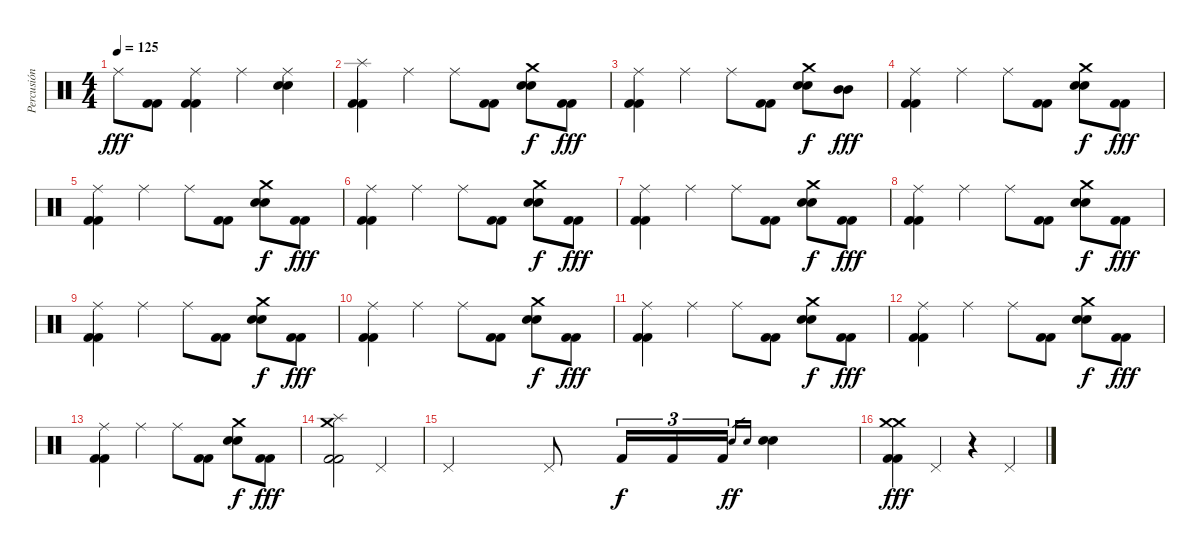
\track ("Percusión" "Percusión") {instrument percussion}
\staff {score}
\articulation defaults
\ts (4 4)
\tempo 125
\clef neutral
\ks c "Ride (middle)".8{dy fff}
("Kick (hit) 2" "Kick (hit) 2").8 ("Ride (middle)" "Kick (hit) 2" "Kick (hit) 2").4 "Ride (middle)".4 ("Ride (middle)" "Electric Snare (hit)" "Electric Snare (hit)").4 |
("Splash (hit)" "Kick (hit) 2" "Kick (hit) 2").4 "Ride (middle)".4 "Ride (middle)".8 ("Kick (hit) 2" "Kick (hit) 2").8 ("Crash medium (hit)" "Electric Snare (hit)" "Electric Snare (hit)").8{dy f} ("Kick (hit) 2" "Kick (hit) 2").8{dy fff} |
("Ride (middle)" "Kick (hit) 2" "Kick (hit) 2").4 "Ride (middle)".4 "Ride (middle)".8 ("Kick (hit) 2" "Kick (hit) 2").8 ("Crash medium (hit)" "Electric Snare (hit)" "Electric Snare (hit)").8{dy f} ("Mid Tom (hit)" "Mid Tom (hit)").8{dy fff} |
("Ride (middle)" "Kick (hit) 2" "Kick (hit) 2").4 "Ride (middle)".4 "Ride (middle)".8 ("Kick (hit) 2" "Kick (hit) 2").8 ("Crash medium (hit)" "Electric Snare (hit)" "Electric Snare (hit)").8{dy f} ("Kick (hit) 2" "Kick (hit) 2").8{dy fff} |
("Ride (middle)" "Kick (hit) 2" "Kick (hit) 2").4 "Ride (middle)".4 "Ride (middle)".8 ("Kick (hit) 2" "Kick (hit) 2").8 ("Crash medium (hit)" "Electric Snare (hit)" "Electric Snare (hit)").8{dy f} ("Kick (hit) 2" "Kick (hit) 2").8{dy fff} |
("Ride (middle)" "Kick (hit) 2" "Kick (hit) 2").4 "Ride (middle)".4 "Ride (middle)".8 ("Kick (hit) 2" "Kick (hit) 2").8 ("Crash medium (hit)" "Electric Snare (hit)" "Electric Snare (hit)").8{dy f} ("Kick (hit) 2" "Kick (hit) 2").8{dy fff} |
("Ride (middle)" "Kick (hit) 2" "Kick (hit) 2").4 "Ride (middle)".4 "Ride (middle)".8 ("Kick (hit) 2" "Kick (hit) 2").8 ("Crash medium (hit)" "Electric Snare (hit)" "Electric Snare (hit)").8{dy f} ("Kick (hit) 2" "Kick (hit) 2").8{dy fff} |
("Ride (middle)" "Kick (hit) 2" "Kick (hit) 2").4 "Ride (middle)".4 "Ride (middle)".8 ("Kick (hit) 2" "Kick (hit) 2").8 ("Crash medium (hit)" "Electric Snare (hit)" "Electric Snare (hit)").8{dy f} ("Kick (hit) 2" "Kick (hit) 2").8{dy fff} |
("Ride (middle)" "Kick (hit) 2" "Kick (hit) 2").4 "Ride (middle)".4 "Ride (middle)".8 ("Kick (hit) 2" "Kick (hit) 2").8 ("Crash medium (hit)" "Electric Snare (hit)" "Electric Snare (hit)").8{dy f} ("Kick (hit) 2" "Kick (hit) 2").8{dy fff} |
("Ride (middle)" "Kick (hit) 2" "Kick (hit) 2").4 "Ride (middle)".4 "Ride (middle)".8 ("Kick (hit) 2" "Kick (hit) 2").8 ("Crash medium (hit)" "Electric Snare (hit)" "Electric Snare (hit)").8{dy f} ("Kick (hit) 2" "Kick (hit) 2").8{dy fff} |
("Ride (middle)" "Kick (hit) 2" "Kick (hit) 2").4 "Ride (middle)".4 "Ride (middle)".8 ("Kick (hit) 2" "Kick (hit) 2").8 ("Crash medium (hit)" "Electric Snare (hit)" "Electric Snare (hit)").8{dy f} ("Kick (hit) 2" "Kick (hit) 2").8{dy fff} |
("Ride (middle)" "Kick (hit) 2" "Kick (hit) 2").4 "Ride (middle)".4 "Ride (middle)".8 ("Kick (hit) 2" "Kick (hit) 2").8 ("Crash medium (hit)" "Electric Snare (hit)" "Electric Snare (hit)").8{dy f} ("Kick (hit) 2" "Kick (hit) 2").8{dy fff} |
("Ride (middle)" "Kick (hit) 2" "Kick (hit) 2").4 "Ride (middle)".4 "Ride (middle)".8 ("Kick (hit) 2" "Kick (hit) 2").8 ("Crash medium (hit)" "Electric Snare (hit)" "Electric Snare (hit)").8{dy f} ("Kick (hit) 2" "Kick (hit) 2").8{dy fff} |
("Splash (hit)" "Crash medium (hit)" "Kick (hit) 2" "Kick (hit) 2").2 "Pedal Hi-Hat (hit)".2 |
"Pedal Hi-Hat (hit)".2 "Pedal Hi-Hat (hit)".8 "Kick (hit) 2".16{tu (3 2) dy f} "Kick (hit) 2".16{tu (3 2)} "Kick (hit) 2".16{tu (3 2)} "Electric Snare (hit)".16{gr dy ff} "Electric Snare (hit)".16{gr} ("Electric Snare (hit)" "Electric Snare (hit)").4 |
("Crash medium (hit)" "Crash medium (hit)" "Kick (hit) 2" "Kick (hit) 2").4{dy fff} "Pedal Hi-Hat (hit)".4 r.4 "Pedal Hi-Hat (hit)".4
